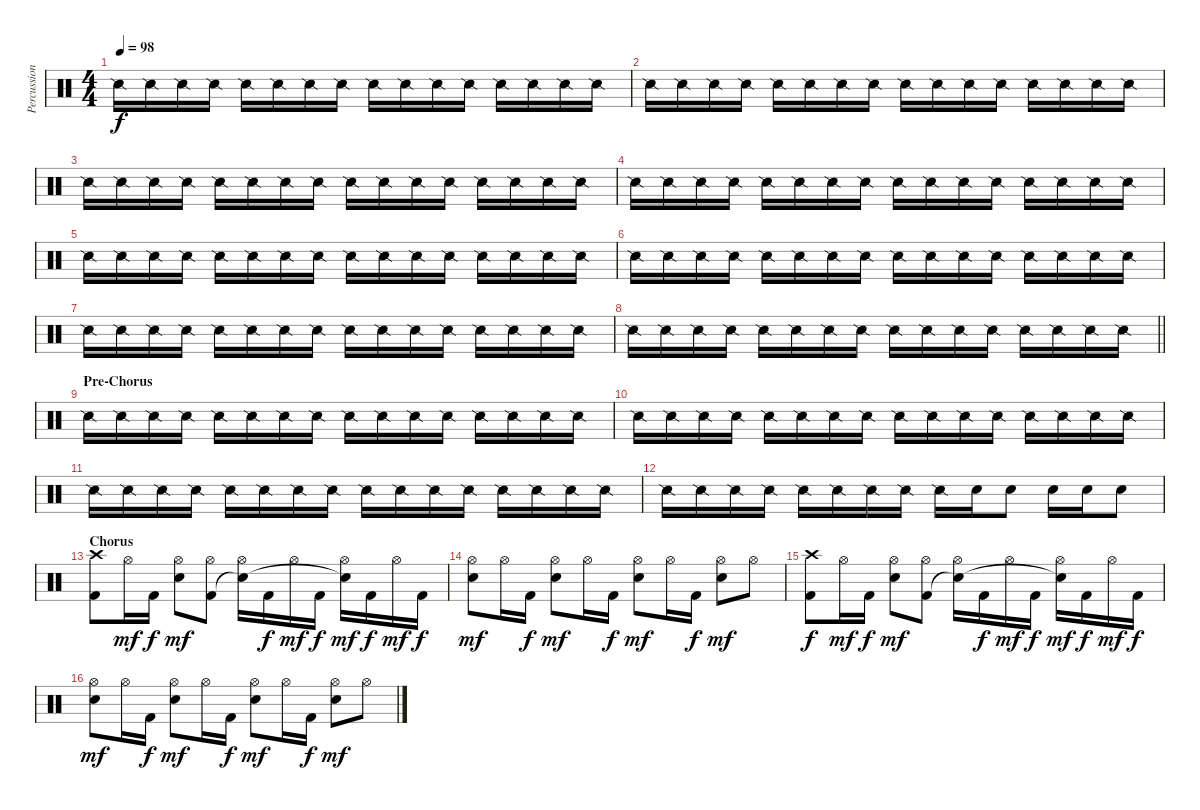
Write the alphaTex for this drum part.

\track ("Percussion" "Percussion") {instrument percussion}
\staff {score}
\articulation defaults
\ts (4 4)
\tempo 98
\clef neutral
\ks c "Snare (side stick) 2".16{dy f} "Snare (side stick) 2".16 "Snare (side stick) 2".16 "Snare (side stick) 2".16 "Snare (side stick) 2".16 "Snare (side stick) 2".16 "Snare (side stick) 2".16 "Snare (side stick) 2".16 "Snare (side stick) 2".16 "Snare (side stick) 2".16 "Snare (side stick) 2".16 "Snare (side stick) 2".16 "Snare (side stick) 2".16 "Snare (side stick) 2".16 "Snare (side stick) 2".16 "Snare (side stick) 2".16
|
"Snare (side stick) 2".16 "Snare (side stick) 2".16 "Snare (side stick) 2".16 "Snare (side stick) 2".16 "Snare (side stick) 2".16 "Snare (side stick) 2".16 "Snare (side stick) 2".16 "Snare (side stick) 2".16 "Snare (side stick) 2".16 "Snare (side stick) 2".16 "Snare (side stick) 2".16 "Snare (side stick) 2".16 "Snare (side stick) 2".16 "Snare (side stick) 2".16 "Snare (side stick) 2".16 "Snare (side stick) 2".16 |
"Snare (side stick) 2".16 "Snare (side stick) 2".16 "Snare (side stick) 2".16 "Snare (side stick) 2".16 "Snare (side stick) 2".16 "Snare (side stick) 2".16 "Snare (side stick) 2".16 "Snare (side stick) 2".16 "Snare (side stick) 2".16 "Snare (side stick) 2".16 "Snare (side stick) 2".16 "Snare (side stick) 2".16 "Snare (side stick) 2".16 "Snare (side stick) 2".16 "Snare (side stick) 2".16 "Snare (side stick) 2".16 |
"Snare (side stick) 2".16 "Snare (side stick) 2".16 "Snare (side stick) 2".16 "Snare (side stick) 2".16 "Snare (side stick) 2".16 "Snare (side stick) 2".16 "Snare (side stick) 2".16 "Snare (side stick) 2".16 "Snare (side stick) 2".16 "Snare (side stick) 2".16 "Snare (side stick) 2".16 "Snare (side stick) 2".16 "Snare (side stick) 2".16 "Snare (side stick) 2".16 "Snare (side stick) 2".16 "Snare (side stick) 2".16 |
"Snare (side stick) 2".16 "Snare (side stick) 2".16 "Snare (side stick) 2".16 "Snare (side stick) 2".16 "Snare (side stick) 2".16 "Snare (side stick) 2".16 "Snare (side stick) 2".16 "Snare (side stick) 2".16 "Snare (side stick) 2".16 "Snare (side stick) 2".16 "Snare (side stick) 2".16 "Snare (side stick) 2".16 "Snare (side stick) 2".16 "Snare (side stick) 2".16 "Snare (side stick) 2".16 "Snare (side stick) 2".16 |
"Snare (side stick) 2".16 "Snare (side stick) 2".16 "Snare (side stick) 2".16 "Snare (side stick) 2".16 "Snare (side stick) 2".16 "Snare (side stick) 2".16 "Snare (side stick) 2".16 "Snare (side stick) 2".16 "Snare (side stick) 2".16 "Snare (side stick) 2".16 "Snare (side stick) 2".16 "Snare (side stick) 2".16 "Snare (side stick) 2".16 "Snare (side stick) 2".16 "Snare (side stick) 2".16 "Snare (side stick) 2".16 |
"Snare (side stick) 2".16 "Snare (side stick) 2".16 "Snare (side stick) 2".16 "Snare (side stick) 2".16 "Snare (side stick) 2".16 "Snare (side stick) 2".16 "Snare (side stick) 2".16 "Snare (side stick) 2".16 "Snare (side stick) 2".16 "Snare (side stick) 2".16 "Snare (side stick) 2".16 "Snare (side stick) 2".16 "Snare (side stick) 2".16 "Snare (side stick) 2".16 "Snare (side stick) 2".16 "Snare (side stick) 2".16 |
\barLineRight lightlight "Snare (side stick) 2".16 "Snare (side stick) 2".16 "Snare (side stick) 2".16 "Snare (side stick) 2".16 "Snare (side stick) 2".16 "Snare (side stick) 2".16 "Snare (side stick) 2".16 "Snare (side stick) 2".16 "Snare (side stick) 2".16 "Snare (side stick) 2".16 "Snare (side stick) 2".16 "Snare (side stick) 2".16 "Snare (side stick) 2".16 "Snare (side stick) 2".16 "Snare (side stick) 2".16 "Snare (side stick) 2".16
|
\section ("" "Pre-Chorus")
"Snare (side stick) 2".16 "Snare (side stick) 2".16 "Snare (side stick) 2".16 "Snare (side stick) 2".16 "Snare (side stick) 2".16 "Snare (side stick) 2".16 "Snare (side stick) 2".16 "Snare (side stick) 2".16 "Snare (side stick) 2".16 "Snare (side stick) 2".16 "Snare (side stick) 2".16 "Snare (side stick) 2".16 "Snare (side stick) 2".16 "Snare (side stick) 2".16 "Snare (side stick) 2".16 "Snare (side stick) 2".16 |
"Snare (side stick) 2".16 "Snare (side stick) 2".16 "Snare (side stick) 2".16 "Snare (side stick) 2".16 "Snare (side stick) 2".16 "Snare (side stick) 2".16 "Snare (side stick) 2".16 "Snare (side stick) 2".16 "Snare (side stick) 2".16 "Snare (side stick) 2".16 "Snare (side stick) 2".16 "Snare (side stick) 2".16 "Snare (side stick) 2".16 "Snare (side stick) 2".16 "Snare (side stick) 2".16 "Snare (side stick) 2".16 |
"Snare (side stick) 2".16 "Snare (side stick) 2".16 "Snare (side stick) 2".16 "Snare (side stick) 2".16 "Snare (side stick) 2".16 "Snare (side stick) 2".16 "Snare (side stick) 2".16 "Snare (side stick) 2".16 "Snare (side stick) 2".16 "Snare (side stick) 2".16 "Snare (side stick) 2".16 "Snare (side stick) 2".16 "Snare (side stick) 2".16 "Snare (side stick) 2".16 "Snare (side stick) 2".16 "Snare (side stick) 2".16 |
"Snare (side stick) 2".16 "Snare (side stick) 2".16 "Snare (side stick) 2".16 "Snare (side stick) 2".16 "Snare (side stick) 2".16 "Snare (side stick) 2".16 "Snare (side stick) 2".16 "Snare (side stick) 2".16 "Snare (side stick) 2".16 "Electric Snare (hit)".16 "Electric Snare (hit)".8 "Electric Snare (hit)".16 "Electric Snare (hit)".16 "Electric Snare (hit)".8 |
\section ("" "Chorus")
("Crash high (hit)" "Kick (hit) 2").8 "Hi-Hat (open)".16{dy mf} "Kick (hit) 2".16{dy f} ("Hi-Hat (open)" "Electric Snare (hit)").8{dy mf} ("Hi-Hat (open)" "Kick (hit) 2").8 ("Hi-Hat (open)" "Snare (hit)"{t}).16 "Kick (hit) 2".16{dy f} "Hi-Hat (open)".16{dy mf} "Kick (hit) 2".16{dy f} ("Hi-Hat (open)" "Snare (hit)"{t}).16{dy mf} "Kick (hit) 2".16{dy f} "Hi-Hat (open)".16{dy mf} "Kick (hit) 2".16{dy f} |
("Hi-Hat (open)" "Electric Snare (hit)").8{dy mf} "Hi-Hat (open)".16 "Kick (hit) 2".16{dy f} ("Hi-Hat (open)" "Electric Snare (hit)").8{dy mf} "Hi-Hat (open)".16 "Kick (hit) 2".16{dy f} ("Hi-Hat (open)" "Electric Snare (hit)").8{dy mf} "Hi-Hat (open)".16 "Kick (hit) 2".16{dy f} ("Hi-Hat (open)" "Electric Snare (hit)").8{dy mf} "Hi-Hat (open)".8 |
("Crash high (hit)" "Kick (hit) 2").8{dy f} "Hi-Hat (open)".16{dy mf} "Kick (hit) 2".16{dy f} ("Hi-Hat (open)" "Electric Snare (hit)").8{dy mf} ("Hi-Hat (open)" "Kick (hit) 2").8 ("Hi-Hat (open)" "Snare (hit)"{t}).16 "Kick (hit) 2".16{dy f} "Hi-Hat (open)".16{dy mf} "Kick (hit) 2".16{dy f} ("Hi-Hat (open)" "Snare (hit)"{t}).16{dy mf} "Kick (hit) 2".16{dy f} "Hi-Hat (open)".16{dy mf} "Kick (hit) 2".16{dy f} |
("Hi-Hat (open)" "Electric Snare (hit)").8{dy mf} "Hi-Hat (open)".16 "Kick (hit) 2".16{dy f} ("Hi-Hat (open)" "Electric Snare (hit)").8{dy mf} "Hi-Hat (open)".16 "Kick (hit) 2".16{dy f} ("Hi-Hat (open)" "Electric Snare (hit)").8{dy mf} "Hi-Hat (open)".16 "Kick (hit) 2".16{dy f} ("Hi-Hat (open)" "Electric Snare (hit)").8{dy mf} "Hi-Hat (open)".8
